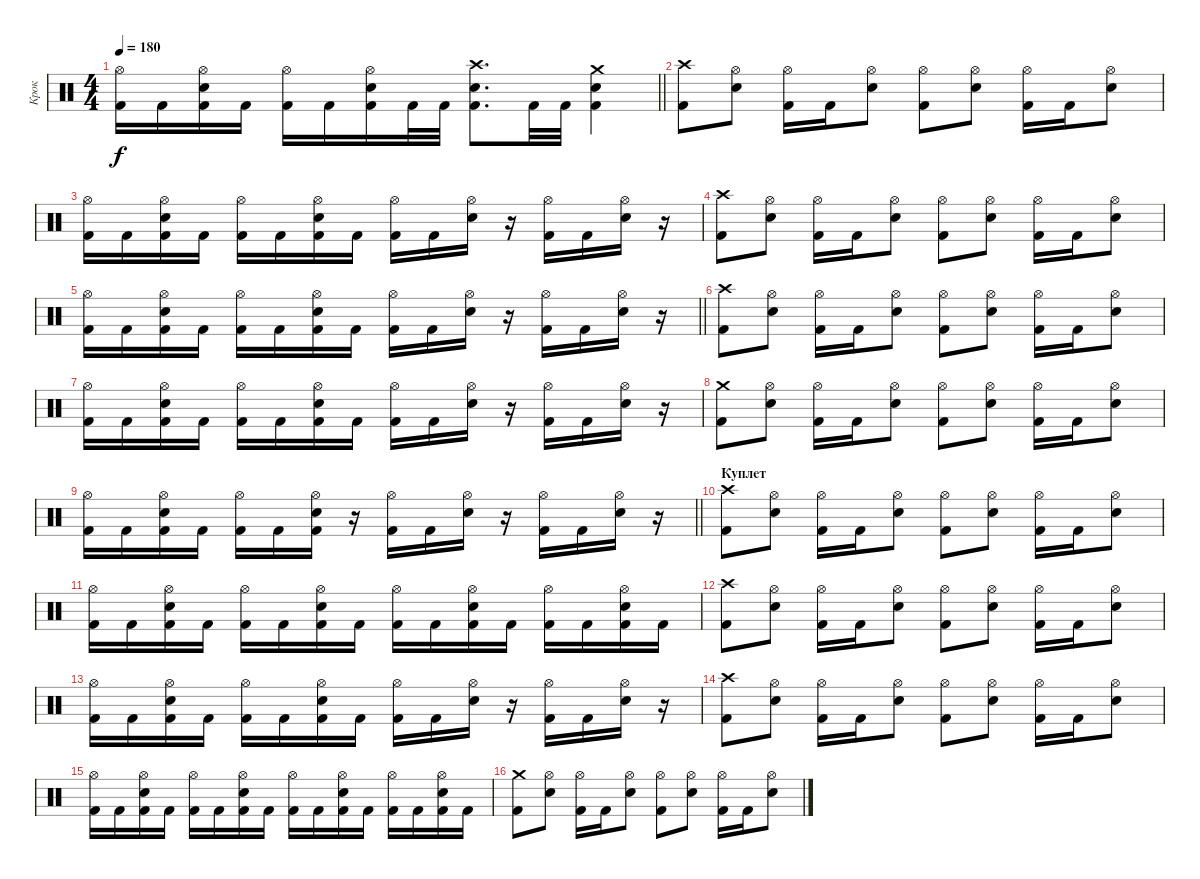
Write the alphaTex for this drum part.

\track ("Крок" "Крок") {instrument percussion}
\staff {score}
\articulation defaults
\ts (4 4)
\tempo 180
\clef neutral
\barLineRight lightlight
\ks c
("Kick (hit) 2" "Hi-Hat (open)").16{dy f} "Kick (hit) 2".16 ("Kick (hit) 2" "Electric Snare (hit)" "Hi-Hat (open)").16 "Kick (hit) 2".16 ("Kick (hit) 2" "Hi-Hat (open)").16 "Kick (hit) 2".16 ("Kick (hit) 2" "Electric Snare (hit)" "Hi-Hat (open)").16 "Kick (hit) 2".32 "Kick (hit) 2".32 ("Electric Snare (hit)" "Kick (hit) 2" "Crash high (hit)").8{d} "Kick (hit) 2".32 "Kick (hit) 2".32 ("Electric Snare (hit)" "Kick (hit) 2" "Crash medium (hit)").4 |
\section ("" "")
("Kick (hit) 2" "Crash high (hit)").8 ("Electric Snare (hit)" "Hi-Hat (open)").8 ("Kick (hit) 2" "Hi-Hat (open)").16 "Kick (hit) 2".16 ("Electric Snare (hit)" "Hi-Hat (open)").8 ("Kick (hit) 2" "Hi-Hat (open)").8 ("Electric Snare (hit)" "Hi-Hat (open)").8 ("Kick (hit) 2" "Hi-Hat (open)").16 "Kick (hit) 2".16 ("Electric Snare (hit)" "Hi-Hat (open)").8 |
("Kick (hit) 2" "Hi-Hat (open)").16 "Kick (hit) 2".16 ("Kick (hit) 2" "Electric Snare (hit)" "Hi-Hat (open)").16 "Kick (hit) 2".16 ("Kick (hit) 2" "Hi-Hat (open)").16 "Kick (hit) 2".16 ("Kick (hit) 2" "Electric Snare (hit)" "Hi-Hat (open)").16 "Kick (hit) 2".16 ("Kick (hit) 2" "Hi-Hat (open)").16 "Kick (hit) 2".16 ("Electric Snare (hit)" "Hi-Hat (open)").16 r.16 ("Kick (hit) 2" "Hi-Hat (open)").16 "Kick (hit) 2".16 ("Electric Snare (hit)" "Hi-Hat (open)").16 r.16 |
("Kick (hit) 2" "Crash high (hit)").8 ("Electric Snare (hit)" "Hi-Hat (open)").8 ("Kick (hit) 2" "Hi-Hat (open)").16 "Kick (hit) 2".16 ("Electric Snare (hit)" "Hi-Hat (open)").8 ("Kick (hit) 2" "Hi-Hat (open)").8 ("Electric Snare (hit)" "Hi-Hat (open)").8 ("Kick (hit) 2" "Hi-Hat (open)").16 "Kick (hit) 2".16 ("Electric Snare (hit)" "Hi-Hat (open)").8 |
\barLineRight lightlight
("Kick (hit) 2" "Hi-Hat (open)").16 "Kick (hit) 2".16 ("Kick (hit) 2" "Electric Snare (hit)" "Hi-Hat (open)").16 "Kick (hit) 2".16 ("Kick (hit) 2" "Hi-Hat (open)").16 "Kick (hit) 2".16 ("Kick (hit) 2" "Electric Snare (hit)" "Hi-Hat (open)").16 "Kick (hit) 2".16 ("Kick (hit) 2" "Hi-Hat (open)").16 "Kick (hit) 2".16 ("Electric Snare (hit)" "Hi-Hat (open)").16 r.16 ("Kick (hit) 2" "Hi-Hat (open)").16 "Kick (hit) 2".16 ("Electric Snare (hit)" "Hi-Hat (open)").16 r.16 |
("Kick (hit) 2" "Crash high (hit)").8 ("Electric Snare (hit)" "Hi-Hat (open)").8 ("Kick (hit) 2" "Hi-Hat (open)").16 "Kick (hit) 2".16 ("Electric Snare (hit)" "Hi-Hat (open)").8 ("Kick (hit) 2" "Hi-Hat (open)").8 ("Electric Snare (hit)" "Hi-Hat (open)").8 ("Kick (hit) 2" "Hi-Hat (open)").16 "Kick (hit) 2".16 ("Electric Snare (hit)" "Hi-Hat (open)").8 |
("Kick (hit) 2" "Hi-Hat (open)").16 "Kick (hit) 2".16 ("Kick (hit) 2" "Electric Snare (hit)" "Hi-Hat (open)").16 "Kick (hit) 2".16 ("Kick (hit) 2" "Hi-Hat (open)").16 "Kick (hit) 2".16 ("Kick (hit) 2" "Electric Snare (hit)" "Hi-Hat (open)").16 "Kick (hit) 2".16 ("Kick (hit) 2" "Hi-Hat (open)").16 "Kick (hit) 2".16 ("Electric Snare (hit)" "Hi-Hat (open)").16 r.16 ("Kick (hit) 2" "Hi-Hat (open)").16 "Kick (hit) 2".16 ("Electric Snare (hit)" "Hi-Hat (open)").16 r.16 |
("Kick (hit) 2" "Crash medium (hit)").8 ("Electric Snare (hit)" "Hi-Hat (open)").8 ("Kick (hit) 2" "Hi-Hat (open)").16 "Kick (hit) 2".16 ("Electric Snare (hit)" "Hi-Hat (open)").8 ("Kick (hit) 2" "Hi-Hat (open)").8 ("Electric Snare (hit)" "Hi-Hat (open)").8 ("Kick (hit) 2" "Hi-Hat (open)").16 "Kick (hit) 2".16 ("Electric Snare (hit)" "Hi-Hat (open)").8 |
\barLineRight lightlight
("Kick (hit) 2" "Hi-Hat (open)").16 "Kick (hit) 2".16 ("Kick (hit) 2" "Electric Snare (hit)" "Hi-Hat (open)").16 "Kick (hit) 2".16 ("Kick (hit) 2" "Hi-Hat (open)").16 "Kick (hit) 2".16 ("Kick (hit) 2" "Electric Snare (hit)" "Hi-Hat (open)").16 r.16 ("Kick (hit) 2" "Hi-Hat (open)").16 "Kick (hit) 2".16 ("Electric Snare (hit)" "Hi-Hat (open)").16 r.16 ("Kick (hit) 2" "Hi-Hat (open)").16 "Kick (hit) 2".16 ("Electric Snare (hit)" "Hi-Hat (open)").16 r.16 |
\section ("" "Куплет")
("Kick (hit) 2" "Crash high (hit)").8 ("Electric Snare (hit)" "Hi-Hat (open)").8 ("Kick (hit) 2" "Hi-Hat (open)").16 "Kick (hit) 2".16 ("Electric Snare (hit)" "Hi-Hat (open)").8 ("Kick (hit) 2" "Hi-Hat (open)").8 ("Electric Snare (hit)" "Hi-Hat (open)").8 ("Kick (hit) 2" "Hi-Hat (open)").16 "Kick (hit) 2".16 ("Electric Snare (hit)" "Hi-Hat (open)").8 |
("Kick (hit) 2" "Hi-Hat (open)").16 "Kick (hit) 2".16 ("Kick (hit) 2" "Electric Snare (hit)" "Hi-Hat (open)").16 "Kick (hit) 2".16 ("Kick (hit) 2" "Hi-Hat (open)").16 "Kick (hit) 2".16 ("Kick (hit) 2" "Electric Snare (hit)" "Hi-Hat (open)").16 "Kick (hit) 2".16 ("Kick (hit) 2" "Hi-Hat (open)").16 "Kick (hit) 2".16 ("Kick (hit) 2" "Electric Snare (hit)" "Hi-Hat (open)").16 "Kick (hit) 2".16 ("Kick (hit) 2" "Hi-Hat (open)").16 "Kick (hit) 2".16 ("Kick (hit) 2" "Electric Snare (hit)" "Hi-Hat (open)").16 "Kick (hit) 2".16 |
("Kick (hit) 2" "Crash high (hit)").8 ("Electric Snare (hit)" "Hi-Hat (open)").8 ("Kick (hit) 2" "Hi-Hat (open)").16 "Kick (hit) 2".16 ("Electric Snare (hit)" "Hi-Hat (open)").8 ("Kick (hit) 2" "Hi-Hat (open)").8 ("Electric Snare (hit)" "Hi-Hat (open)").8 ("Kick (hit) 2" "Hi-Hat (open)").16 "Kick (hit) 2".16 ("Electric Snare (hit)" "Hi-Hat (open)").8 |
("Kick (hit) 2" "Hi-Hat (open)").16 "Kick (hit) 2".16 ("Kick (hit) 2" "Electric Snare (hit)" "Hi-Hat (open)").16 "Kick (hit) 2".16 ("Kick (hit) 2" "Hi-Hat (open)").16 "Kick (hit) 2".16 ("Kick (hit) 2" "Electric Snare (hit)" "Hi-Hat (open)").16 "Kick (hit) 2".16 ("Kick (hit) 2" "Hi-Hat (open)").16 "Kick (hit) 2".16 ("Electric Snare (hit)" "Hi-Hat (open)").16 r.16 ("Kick (hit) 2" "Hi-Hat (open)").16 "Kick (hit) 2".16 ("Electric Snare (hit)" "Hi-Hat (open)").16 r.16 |
("Kick (hit) 2" "Crash high (hit)").8 ("Electric Snare (hit)" "Hi-Hat (open)").8 ("Kick (hit) 2" "Hi-Hat (open)").16 "Kick (hit) 2".16 ("Electric Snare (hit)" "Hi-Hat (open)").8 ("Kick (hit) 2" "Hi-Hat (open)").8 ("Electric Snare (hit)" "Hi-Hat (open)").8 ("Kick (hit) 2" "Hi-Hat (open)").16 "Kick (hit) 2".16 ("Electric Snare (hit)" "Hi-Hat (open)").8 |
("Kick (hit) 2" "Hi-Hat (open)").16 "Kick (hit) 2".16 ("Kick (hit) 2" "Electric Snare (hit)" "Hi-Hat (open)").16 "Kick (hit) 2".16 ("Kick (hit) 2" "Hi-Hat (open)").16 "Kick (hit) 2".16 ("Kick (hit) 2" "Electric Snare (hit)" "Hi-Hat (open)").16 "Kick (hit) 2".16 ("Kick (hit) 2" "Hi-Hat (open)").16 "Kick (hit) 2".16 ("Kick (hit) 2" "Electric Snare (hit)" "Hi-Hat (open)").16 "Kick (hit) 2".16 ("Kick (hit) 2" "Hi-Hat (open)").16 "Kick (hit) 2".16 ("Kick (hit) 2" "Electric Snare (hit)" "Hi-Hat (open)").16 "Kick (hit) 2".16 |
("Kick (hit) 2" "Crash medium (hit)").8 ("Electric Snare (hit)" "Hi-Hat (open)").8 ("Kick (hit) 2" "Hi-Hat (open)").16 "Kick (hit) 2".16 ("Electric Snare (hit)" "Hi-Hat (open)").8 ("Kick (hit) 2" "Hi-Hat (open)").8 ("Electric Snare (hit)" "Hi-Hat (open)").8 ("Kick (hit) 2" "Hi-Hat (open)").16 "Kick (hit) 2".16 ("Electric Snare (hit)" "Hi-Hat (open)").8
